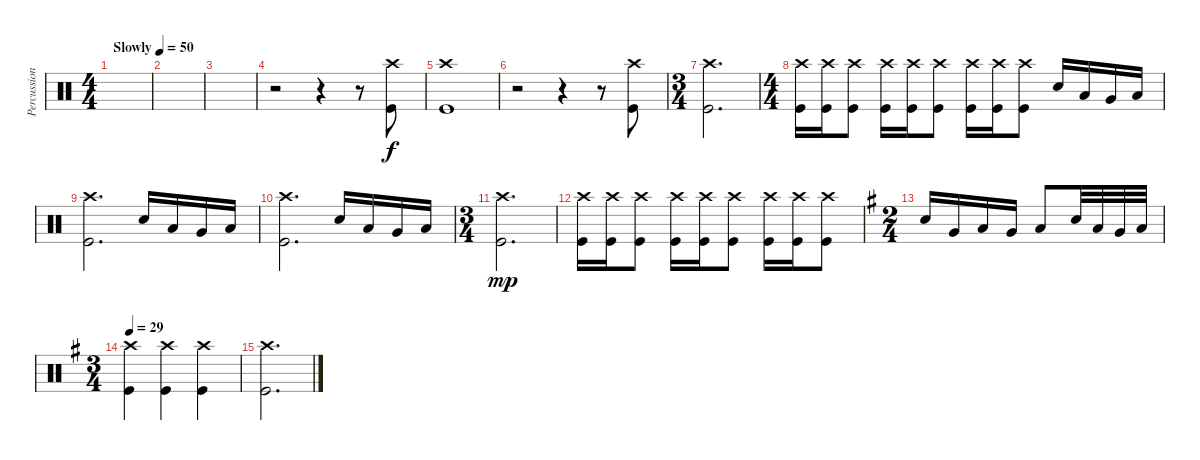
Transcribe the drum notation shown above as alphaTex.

\track ("Percussion" "Percussion") {instrument percussion}
\staff {score}
\articulation defaults
\ts (4 4)
\tempo (50 "Slowly")
\clef neutral
\ks c
|
|
|
r.2 r.4 r.8 ("Crash high (hit)" "Kick (hit)").8 |
("Crash high (hit)" "Kick (hit)").1 |
r.2 r.4 r.8 ("Crash high (hit)" "Kick (hit)").8 |
\ts (3 4)
("Crash high (hit)" "Kick (hit)").2{d} |
\ts (4 4)
("Crash high (hit)" "Kick (hit)").16 ("Crash high (hit)" "Kick (hit)").16 ("Crash high (hit)" "Kick (hit)").8 ("Crash high (hit)" "Kick (hit)").16 ("Crash high (hit)" "Kick (hit)").16 ("Crash high (hit)" "Kick (hit)").8 ("Crash high (hit)" "Kick (hit)").16 ("Crash high (hit)" "Kick (hit)").16 ("Crash high (hit)" "Kick (hit)").8 "Snare (hit) 2".16 "Low Tom (hit)".16 "Very Low Tom (hit)".16 "Low Floor Tom (hit)".16 |
("Crash high (hit)" "Kick (hit)").2{d} "Snare (hit) 2".16 "Low Tom (hit)".16 "Very Low Tom (hit)".16 "Low Floor Tom (hit)".16 |
("Crash high (hit)" "Kick (hit)").2{d} "Snare (hit) 2".16 "Low Tom (hit)".16 "Very Low Tom (hit)".16 "Low Floor Tom (hit)".16 |
\ts (3 4)
("Crash high (hit)" "Kick (hit)").2{d dy mp} |
("Crash high (hit)" "Kick (hit)").16 ("Crash high (hit)" "Kick (hit)").16 ("Crash high (hit)" "Kick (hit)").8 ("Crash high (hit)" "Kick (hit)").16 ("Crash high (hit)" "Kick (hit)").16 ("Crash high (hit)" "Kick (hit)").8 ("Crash high (hit)" "Kick (hit)").16 ("Crash high (hit)" "Kick (hit)").16 ("Crash high (hit)" "Kick (hit)").8 |
\ts (2 4)
\ks g "Snare (hit) 2".16 "Very Low Tom (hit)".16 "Low Tom (hit)".16 "Very Low Tom (hit)".16 "Low Floor Tom (hit)".8 "Snare (hit) 2".32 "Low Tom (hit)".32 "Very Low Tom (hit)".32 "Low Floor Tom (hit)".32
|
\ts (3 4)
\tempo 29
("Crash high (hit)" "Kick (hit)").4 ("Crash high (hit)" "Kick (hit)").4 ("Crash high (hit)" "Kick (hit)").4 |
("Crash high (hit)" "Kick (hit)").2{d}
